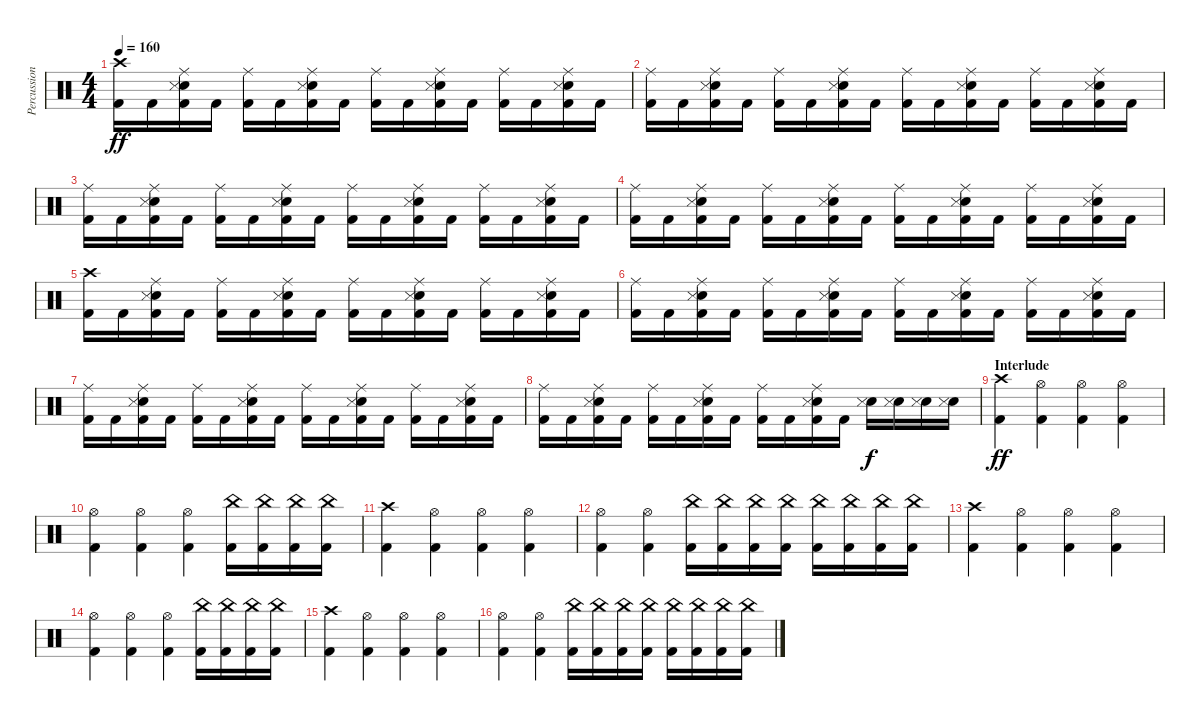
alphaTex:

\track ("Percussions" "Percussion") {instrument percussion}
\staff {score}
\articulation defaults
\ts (4 4)
\tempo 160
\clef neutral
\ks c
("Crash high (hit)" "Kick (hit) 2").16{dy ff} "Kick (hit) 2".16 ("Ride (middle)" "Electric Snare (hit)" "Snare (side stick) 3" "Kick (hit) 2").16 "Kick (hit) 2".16 ("Ride (middle)" "Kick (hit) 2").16 "Kick (hit) 2".16 ("Ride (middle)" "Electric Snare (hit)" "Snare (side stick) 3" "Kick (hit) 2").16 "Kick (hit) 2".16 ("Ride (middle)" "Kick (hit) 2").16 "Kick (hit) 2".16 ("Ride (middle)" "Electric Snare (hit)" "Snare (side stick) 3" "Kick (hit) 2").16 "Kick (hit) 2".16 ("Ride (middle)" "Kick (hit) 2").16 "Kick (hit) 2".16 ("Ride (middle)" "Electric Snare (hit)" "Snare (side stick) 3" "Kick (hit) 2").16 "Kick (hit) 2".16 |
("Ride (middle)" "Kick (hit) 2").16 "Kick (hit) 2".16 ("Ride (middle)" "Electric Snare (hit)" "Snare (side stick) 3" "Kick (hit) 2").16 "Kick (hit) 2".16 ("Ride (middle)" "Kick (hit) 2").16 "Kick (hit) 2".16 ("Ride (middle)" "Electric Snare (hit)" "Snare (side stick) 3" "Kick (hit) 2").16 "Kick (hit) 2".16 ("Ride (middle)" "Kick (hit) 2").16 "Kick (hit) 2".16 ("Ride (middle)" "Electric Snare (hit)" "Snare (side stick) 3" "Kick (hit) 2").16 "Kick (hit) 2".16 ("Ride (middle)" "Kick (hit) 2").16 "Kick (hit) 2".16 ("Ride (middle)" "Electric Snare (hit)" "Snare (side stick) 3" "Kick (hit) 2").16 "Kick (hit) 2".16 |
("Ride (middle)" "Kick (hit) 2").16 "Kick (hit) 2".16 ("Ride (middle)" "Electric Snare (hit)" "Snare (side stick) 3" "Kick (hit) 2").16 "Kick (hit) 2".16 ("Ride (middle)" "Kick (hit) 2").16 "Kick (hit) 2".16 ("Ride (middle)" "Electric Snare (hit)" "Snare (side stick) 3" "Kick (hit) 2").16 "Kick (hit) 2".16 ("Ride (middle)" "Kick (hit) 2").16 "Kick (hit) 2".16 ("Ride (middle)" "Electric Snare (hit)" "Snare (side stick) 3" "Kick (hit) 2").16 "Kick (hit) 2".16 ("Ride (middle)" "Kick (hit) 2").16 "Kick (hit) 2".16 ("Ride (middle)" "Electric Snare (hit)" "Snare (side stick) 3" "Kick (hit) 2").16 "Kick (hit) 2".16 |
("Ride (middle)" "Kick (hit) 2").16 "Kick (hit) 2".16 ("Ride (middle)" "Electric Snare (hit)" "Snare (side stick) 3" "Kick (hit) 2").16 "Kick (hit) 2".16 ("Ride (middle)" "Kick (hit) 2").16 "Kick (hit) 2".16 ("Ride (middle)" "Electric Snare (hit)" "Snare (side stick) 3" "Kick (hit) 2").16 "Kick (hit) 2".16 ("Ride (middle)" "Kick (hit) 2").16 "Kick (hit) 2".16 ("Ride (middle)" "Electric Snare (hit)" "Snare (side stick) 3" "Kick (hit) 2").16 "Kick (hit) 2".16 ("Ride (middle)" "Kick (hit) 2").16 "Kick (hit) 2".16 ("Ride (middle)" "Electric Snare (hit)" "Snare (side stick) 3" "Kick (hit) 2").16 "Kick (hit) 2".16 |
("Crash high (hit)" "Kick (hit) 2").16 "Kick (hit) 2".16 ("Ride (middle)" "Electric Snare (hit)" "Snare (side stick) 3" "Kick (hit) 2").16 "Kick (hit) 2".16 ("Ride (middle)" "Kick (hit) 2").16 "Kick (hit) 2".16 ("Ride (middle)" "Electric Snare (hit)" "Snare (side stick) 3" "Kick (hit) 2").16 "Kick (hit) 2".16 ("Ride (middle)" "Kick (hit) 2").16 "Kick (hit) 2".16 ("Ride (middle)" "Electric Snare (hit)" "Snare (side stick) 3" "Kick (hit) 2").16 "Kick (hit) 2".16 ("Ride (middle)" "Kick (hit) 2").16 "Kick (hit) 2".16 ("Ride (middle)" "Electric Snare (hit)" "Snare (side stick) 3" "Kick (hit) 2").16 "Kick (hit) 2".16 |
("Ride (middle)" "Kick (hit) 2").16 "Kick (hit) 2".16 ("Ride (middle)" "Electric Snare (hit)" "Snare (side stick) 3" "Kick (hit) 2").16 "Kick (hit) 2".16 ("Ride (middle)" "Kick (hit) 2").16 "Kick (hit) 2".16 ("Ride (middle)" "Electric Snare (hit)" "Snare (side stick) 3" "Kick (hit) 2").16 "Kick (hit) 2".16 ("Ride (middle)" "Kick (hit) 2").16 "Kick (hit) 2".16 ("Ride (middle)" "Electric Snare (hit)" "Snare (side stick) 3" "Kick (hit) 2").16 "Kick (hit) 2".16 ("Ride (middle)" "Kick (hit) 2").16 "Kick (hit) 2".16 ("Ride (middle)" "Electric Snare (hit)" "Snare (side stick) 3" "Kick (hit) 2").16 "Kick (hit) 2".16 |
("Ride (middle)" "Kick (hit) 2").16 "Kick (hit) 2".16 ("Ride (middle)" "Electric Snare (hit)" "Snare (side stick) 3" "Kick (hit) 2").16 "Kick (hit) 2".16 ("Ride (middle)" "Kick (hit) 2").16 "Kick (hit) 2".16 ("Ride (middle)" "Electric Snare (hit)" "Snare (side stick) 3" "Kick (hit) 2").16 "Kick (hit) 2".16 ("Ride (middle)" "Kick (hit) 2").16 "Kick (hit) 2".16 ("Ride (middle)" "Electric Snare (hit)" "Snare (side stick) 3" "Kick (hit) 2").16 "Kick (hit) 2".16 ("Ride (middle)" "Kick (hit) 2").16 "Kick (hit) 2".16 ("Ride (middle)" "Electric Snare (hit)" "Snare (side stick) 3" "Kick (hit) 2").16 "Kick (hit) 2".16 |
("Ride (middle)" "Kick (hit) 2").16 "Kick (hit) 2".16 ("Ride (middle)" "Electric Snare (hit)" "Snare (side stick) 3" "Kick (hit) 2").16 "Kick (hit) 2".16 ("Ride (middle)" "Kick (hit) 2").16 "Kick (hit) 2".16 ("Ride (middle)" "Electric Snare (hit)" "Snare (side stick) 3" "Kick (hit) 2").16 "Kick (hit) 2".16 ("Ride (middle)" "Kick (hit) 2").16 "Kick (hit) 2".16 ("Ride (middle)" "Electric Snare (hit)" "Snare (side stick) 3" "Kick (hit) 2").16 "Kick (hit) 2".16 ("Electric Snare (hit)" "Snare (side stick) 3").16{dy f} ("Electric Snare (hit)" "Snare (side stick) 3").16 ("Electric Snare (hit)" "Snare (side stick) 3").16 ("Electric Snare (hit)" "Snare (side stick) 3").16 |
\section ("" "Interlude")
("Crash high (hit)" "Kick (hit) 2").4{dy ff} ("Hi-Hat (open)" "Kick (hit) 2").4 ("Hi-Hat (open)" "Kick (hit) 2").4 ("Hi-Hat (open)" "Kick (hit) 2").4 |
("Hi-Hat (open)" "Kick (hit) 2").4 ("Hi-Hat (open)" "Kick (hit) 2").4 ("Hi-Hat (open)" "Kick (hit) 2").4 ("China (hit)" "Kick (hit) 2").16 ("China (hit)" "Kick (hit) 2").16 ("China (hit)" "Kick (hit) 2").16 ("China (hit)" "Kick (hit) 2").16 |
("Crash high (hit)" "Kick (hit) 2").4 ("Hi-Hat (open)" "Kick (hit) 2").4 ("Hi-Hat (open)" "Kick (hit) 2").4 ("Hi-Hat (open)" "Kick (hit) 2").4 |
("Hi-Hat (open)" "Kick (hit) 2").4 ("Hi-Hat (open)" "Kick (hit) 2").4 ("China (hit)" "Kick (hit) 2").16 ("China (hit)" "Kick (hit) 2").16 ("China (hit)" "Kick (hit) 2").16 ("China (hit)" "Kick (hit) 2").16 ("China (hit)" "Kick (hit) 2").16 ("China (hit)" "Kick (hit) 2").16 ("China (hit)" "Kick (hit) 2").16 ("China (hit)" "Kick (hit) 2").16 |
("Crash high (hit)" "Kick (hit) 2").4 ("Hi-Hat (open)" "Kick (hit) 2").4 ("Hi-Hat (open)" "Kick (hit) 2").4 ("Hi-Hat (open)" "Kick (hit) 2").4 |
("Hi-Hat (open)" "Kick (hit) 2").4 ("Hi-Hat (open)" "Kick (hit) 2").4 ("Hi-Hat (open)" "Kick (hit) 2").4 ("China (hit)" "Kick (hit) 2").16 ("China (hit)" "Kick (hit) 2").16 ("China (hit)" "Kick (hit) 2").16 ("China (hit)" "Kick (hit) 2").16 |
("Crash high (hit)" "Kick (hit) 2").4 ("Hi-Hat (open)" "Kick (hit) 2").4 ("Hi-Hat (open)" "Kick (hit) 2").4 ("Hi-Hat (open)" "Kick (hit) 2").4 |
("Hi-Hat (open)" "Kick (hit) 2").4 ("Hi-Hat (open)" "Kick (hit) 2").4 ("China (hit)" "Kick (hit) 2").16 ("China (hit)" "Kick (hit) 2").16 ("China (hit)" "Kick (hit) 2").16 ("China (hit)" "Kick (hit) 2").16 ("China (hit)" "Kick (hit) 2").16 ("China (hit)" "Kick (hit) 2").16 ("China (hit)" "Kick (hit) 2").16 ("China (hit)" "Kick (hit) 2").16
